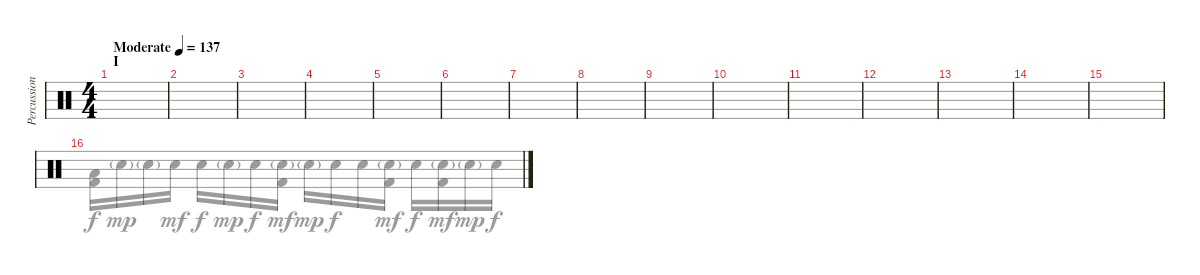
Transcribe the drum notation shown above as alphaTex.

\track ("Percussion" "Percussion") {instrument percussion}
\staff {score}
\articulation defaults
\voice
\ts (4 4)
\section ("" "I")
\tempo (137 "Moderate")
\clef neutral
\ks c
|
|
|
|
|
|
|
|
|
|
|
|
|
|
|
\voice
\clef neutral
\ks c
|
|
|
|
|
|
|
|
|
|
|
|
|
|
|
("Low Tom (hit)" "Kick (hit) 2").16 "Electric Snare (hit)"{g}.16{dy mp} "Electric Snare (hit)"{g}.16 "Electric Snare (hit)".16{dy mf} "Electric Snare (hit)".16{dy f} "Electric Snare (hit)"{g}.16{dy mp} "Electric Snare (hit)".16{dy f} ("Electric Snare (hit)"{g} "Kick (hit) 2").16{dy mf} "Electric Snare (hit)"{g}.16{dy mp} "Electric Snare (hit)".16{dy f} "Electric Snare (hit)".16 ("Electric Snare (hit)"{g} "Kick (hit) 2").16{dy mf} "Electric Snare (hit)".16{dy f} ("Electric Snare (hit)"{g} "Kick (hit) 2").16{dy mf} "Electric Snare (hit)"{g}.16{dy mp} "Electric Snare (hit)".16{dy f}
